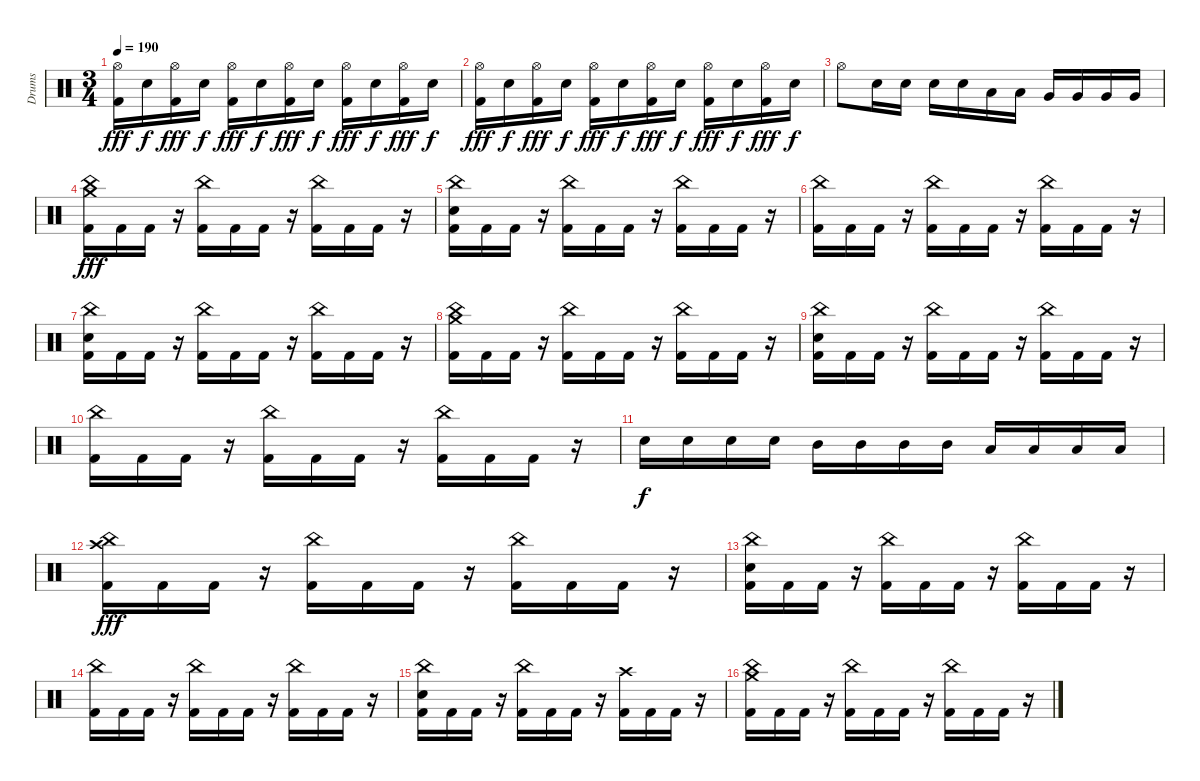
\track ("Drums" "Drums") {instrument percussion}
\staff {score}
\articulation defaults
\ts (3 4)
\tempo 190
\clef neutral
\ks c
("Hi-Hat (open)" "Kick (hit) 2").16{dy fff} "Snare (hit) 2".16{dy f} ("Hi-Hat (open)" "Kick (hit) 2").16{dy fff} "Snare (hit) 2".16{dy f} ("Hi-Hat (open)" "Kick (hit) 2").16{dy fff} "Snare (hit) 2".16{dy f} ("Hi-Hat (open)" "Kick (hit) 2").16{dy fff} "Snare (hit) 2".16{dy f} ("Hi-Hat (open)" "Kick (hit) 2").16{dy fff} "Snare (hit) 2".16{dy f} ("Hi-Hat (open)" "Kick (hit) 2").16{dy fff} "Snare (hit) 2".16{dy f} |
("Hi-Hat (open)" "Kick (hit) 2").16{dy fff} "Snare (hit) 2".16{dy f} ("Hi-Hat (open)" "Kick (hit) 2").16{dy fff} "Snare (hit) 2".16{dy f} ("Hi-Hat (open)" "Kick (hit) 2").16{dy fff} "Snare (hit) 2".16{dy f} ("Hi-Hat (open)" "Kick (hit) 2").16{dy fff} "Snare (hit) 2".16{dy f} ("Hi-Hat (open)" "Kick (hit) 2").16{dy fff} "Snare (hit) 2".16{dy f} ("Hi-Hat (open)" "Kick (hit) 2").16{dy fff} "Snare (hit) 2".16{dy f} |
"Hi-Hat (open)".8 "Snare (hit) 2".16 "Snare (hit) 2".16 "Snare (hit) 2".16 "Snare (hit) 2".16 "Low Tom (hit)".16 "Low Tom (hit)".16 "Very Low Tom (hit)".16 "Very Low Tom (hit)".16 "Very Low Tom (hit)".16 "Very Low Tom (hit)".16 |
("Crash medium (hit)" "China (hit)" "Kick (hit) 2").16{dy fff} "Kick (hit) 2".16 "Kick (hit) 2".16 r.16 ("China (hit)" "Kick (hit) 2").16 "Kick (hit) 2".16 "Kick (hit) 2".16 r.16 ("China (hit)" "Kick (hit) 2").16 "Kick (hit) 2".16 "Kick (hit) 2".16 r.16 |
("China (hit)" "Snare (hit) 2" "Kick (hit) 2").16 "Kick (hit) 2".16 "Kick (hit) 2".16 r.16 ("China (hit)" "Kick (hit) 2").16 "Kick (hit) 2".16 "Kick (hit) 2".16 r.16 ("China (hit)" "Kick (hit) 2").16 "Kick (hit) 2".16 "Kick (hit) 2".16 r.16 |
("China (hit)" "Kick (hit) 2").16 "Kick (hit) 2".16 "Kick (hit) 2".16 r.16 ("China (hit)" "Kick (hit) 2").16 "Kick (hit) 2".16 "Kick (hit) 2".16 r.16 ("China (hit)" "Kick (hit) 2").16 "Kick (hit) 2".16 "Kick (hit) 2".16 r.16 |
("China (hit)" "Snare (hit) 2" "Kick (hit) 2").16 "Kick (hit) 2".16 "Kick (hit) 2".16 r.16 ("China (hit)" "Kick (hit) 2").16 "Kick (hit) 2".16 "Kick (hit) 2".16 r.16 ("China (hit)" "Kick (hit) 2").16 "Kick (hit) 2".16 "Kick (hit) 2".16 r.16 |
("Crash medium (hit)" "China (hit)" "Kick (hit) 2").16 "Kick (hit) 2".16 "Kick (hit) 2".16 r.16 ("China (hit)" "Kick (hit) 2").16 "Kick (hit) 2".16 "Kick (hit) 2".16 r.16 ("China (hit)" "Kick (hit) 2").16 "Kick (hit) 2".16 "Kick (hit) 2".16 r.16 |
("China (hit)" "Snare (hit) 2" "Kick (hit) 2").16 "Kick (hit) 2".16 "Kick (hit) 2".16 r.16 ("China (hit)" "Kick (hit) 2").16 "Kick (hit) 2".16 "Kick (hit) 2".16 r.16 ("China (hit)" "Kick (hit) 2").16 "Kick (hit) 2".16 "Kick (hit) 2".16 r.16 |
("China (hit)" "Kick (hit) 2").16 "Kick (hit) 2".16 "Kick (hit) 2".16 r.16 ("China (hit)" "Kick (hit) 2").16 "Kick (hit) 2".16 "Kick (hit) 2".16 r.16 ("China (hit)" "Kick (hit) 2").16 "Kick (hit) 2".16 "Kick (hit) 2".16 r.16 |
"Snare (hit) 2".16{dy f} "Snare (hit) 2".16 "Snare (hit) 2".16 "Snare (hit) 2".16 "Mid Tom (hit)".16 "Mid Tom (hit)".16 "Mid Tom (hit)".16 "Mid Tom (hit)".16 "Low Tom (hit)".16 "Low Tom (hit)".16 "Low Tom (hit)".16 "Low Tom (hit)".16 |
("Crash high (hit)" "China (hit)" "Kick (hit) 2").16{dy fff} "Kick (hit) 2".16 "Kick (hit) 2".16 r.16 ("China (hit)" "Kick (hit) 2").16 "Kick (hit) 2".16 "Kick (hit) 2".16 r.16 ("China (hit)" "Kick (hit) 2").16 "Kick (hit) 2".16 "Kick (hit) 2".16 r.16 |
("China (hit)" "Snare (hit) 2" "Kick (hit) 2").16 "Kick (hit) 2".16 "Kick (hit) 2".16 r.16 ("China (hit)" "Kick (hit) 2").16 "Kick (hit) 2".16 "Kick (hit) 2".16 r.16 ("China (hit)" "Kick (hit) 2").16 "Kick (hit) 2".16 "Kick (hit) 2".16 r.16 |
("China (hit)" "Kick (hit) 2").16 "Kick (hit) 2".16 "Kick (hit) 2".16 r.16 ("China (hit)" "Kick (hit) 2").16 "Kick (hit) 2".16 "Kick (hit) 2".16 r.16 ("China (hit)" "Kick (hit) 2").16 "Kick (hit) 2".16 "Kick (hit) 2".16 r.16 |
("China (hit)" "Snare (hit) 2" "Kick (hit) 2").16 "Kick (hit) 2".16 "Kick (hit) 2".16 r.16 ("China (hit)" "Kick (hit) 2").16 "Kick (hit) 2".16 "Kick (hit) 2".16 r.16 ("Crash high (hit)" "Kick (hit) 2").16 "Kick (hit) 2".16 "Kick (hit) 2".16 r.16 |
("Crash medium (hit)" "China (hit)" "Kick (hit) 2").16 "Kick (hit) 2".16 "Kick (hit) 2".16 r.16 ("China (hit)" "Kick (hit) 2").16 "Kick (hit) 2".16 "Kick (hit) 2".16 r.16 ("China (hit)" "Kick (hit) 2").16 "Kick (hit) 2".16 "Kick (hit) 2".16 r.16
